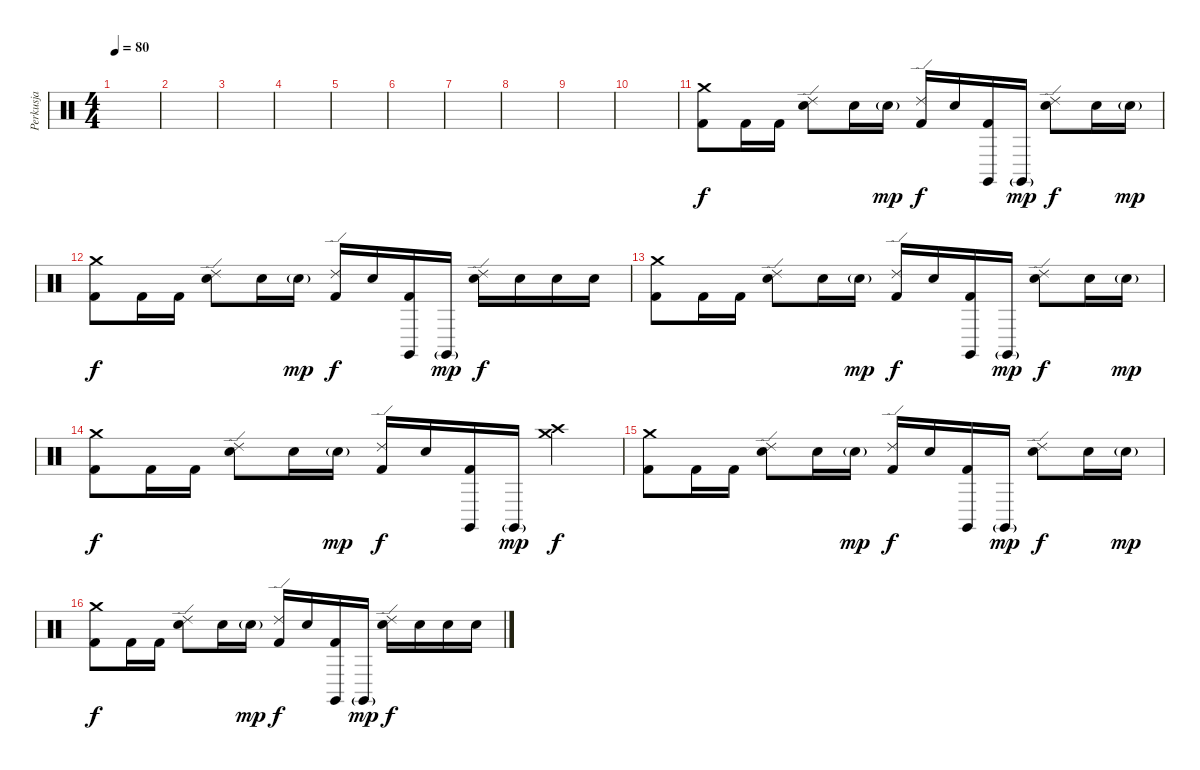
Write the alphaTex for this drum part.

\track ("Perkusja" "Perkusja") {instrument percussion}
\staff {score}
\articulation defaults
\ts (4 4)
\tempo 80
\clef neutral
\ks c
|
|
|
|
|
|
|
|
|
|
("Crash medium (hit)" "Kick (hit) 2").8 "Kick (hit) 2".16 "Kick (hit) 2".16 ("Ride (edge) 2" "Snare (hit) 2").8 "Snare (hit) 2".16 "Snare (hit) 2"{g}.16{dy mp} ("Ride (edge) 2" "Kick (hit) 2").16{dy f} "Snare (hit) 2".16 ("Claves (hit)" "Kick (hit) 2").16 "Claves (hit)"{g}.16{dy mp} ("Ride (edge) 2" "Snare (hit) 2").8{dy f} "Snare (hit) 2".16 "Snare (hit) 2"{g}.16{dy mp} |
("Crash medium (hit)" "Kick (hit) 2").8{dy f} "Kick (hit) 2".16 "Kick (hit) 2".16 ("Ride (edge) 2" "Snare (hit) 2").8 "Snare (hit) 2".16 "Snare (hit) 2"{g}.16{dy mp} ("Ride (edge) 2" "Kick (hit) 2").16{dy f} "Snare (hit) 2".16 ("Claves (hit)" "Kick (hit) 2").16 "Claves (hit)"{g}.16{dy mp} ("Ride (edge) 2" "Snare (hit) 2").16{dy f} "Electric Snare (hit)".16 "Electric Snare (hit)".16 "Electric Snare (hit)".16 |
("Crash medium (hit)" "Kick (hit) 2").8 "Kick (hit) 2".16 "Kick (hit) 2".16 ("Ride (edge) 2" "Snare (hit) 2").8 "Snare (hit) 2".16 "Snare (hit) 2"{g}.16{dy mp} ("Ride (edge) 2" "Kick (hit) 2").16{dy f} "Snare (hit) 2".16 ("Claves (hit)" "Kick (hit) 2").16 "Claves (hit)"{g}.16{dy mp} ("Ride (edge) 2" "Snare (hit) 2").8{dy f} "Snare (hit) 2".16 "Snare (hit) 2"{g}.16{dy mp} |
("Crash medium (hit)" "Kick (hit) 2").8{dy f} "Kick (hit) 2".16 "Kick (hit) 2".16 ("Ride (edge) 2" "Snare (hit) 2").8 "Snare (hit) 2".16 "Snare (hit) 2"{g}.16{dy mp} ("Ride (edge) 2" "Kick (hit) 2").16{dy f} "Snare (hit) 2".16 ("Claves (hit)" "Kick (hit) 2").16 "Claves (hit)"{g}.16{dy mp} ("Crash high (hit)" "Crash medium (hit)").4{dy f} |
("Crash medium (hit)" "Kick (hit) 2").8 "Kick (hit) 2".16 "Kick (hit) 2".16 ("Ride (edge) 2" "Snare (hit) 2").8 "Snare (hit) 2".16 "Snare (hit) 2"{g}.16{dy mp} ("Ride (edge) 2" "Kick (hit) 2").16{dy f} "Snare (hit) 2".16 ("Claves (hit)" "Kick (hit) 2").16 "Claves (hit)"{g}.16{dy mp} ("Ride (edge) 2" "Snare (hit) 2").8{dy f} "Snare (hit) 2".16 "Snare (hit) 2"{g}.16{dy mp} |
("Crash medium (hit)" "Kick (hit) 2").8{dy f} "Kick (hit) 2".16 "Kick (hit) 2".16 ("Ride (edge) 2" "Snare (hit) 2").8 "Snare (hit) 2".16 "Snare (hit) 2"{g}.16{dy mp} ("Ride (edge) 2" "Kick (hit) 2").16{dy f} "Snare (hit) 2".16 ("Claves (hit)" "Kick (hit) 2").16 "Claves (hit)"{g}.16{dy mp} ("Ride (edge) 2" "Snare (hit) 2").16{dy f} "Electric Snare (hit)".16 "Electric Snare (hit)".16 "Electric Snare (hit)".16
